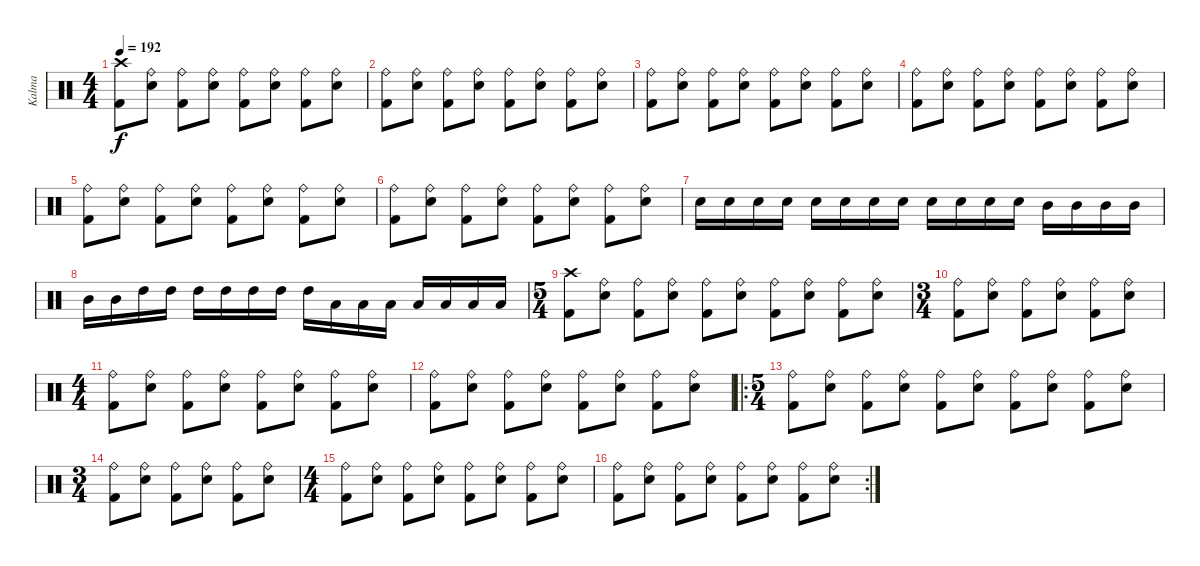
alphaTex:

\track ("Kalma" "Kalma") {instrument percussion}
\staff {score}
\articulation defaults
\ts (4 4)
\tempo 192
\clef neutral
\ks c
("Crash high (hit)" "Kick (hit) 2").8{dy f} ("Ride (bell)" "Snare (hit) 2").8 ("Ride (bell)" "Kick (hit) 2").8 ("Ride (bell)" "Snare (hit) 2").8 ("Ride (bell)" "Kick (hit) 2").8 ("Ride (bell)" "Snare (hit) 2").8 ("Ride (bell)" "Kick (hit) 2").8 ("Ride (bell)" "Snare (hit) 2").8 |
("Ride (bell)" "Kick (hit) 2").8 ("Ride (bell)" "Snare (hit) 2").8 ("Ride (bell)" "Kick (hit) 2").8 ("Ride (bell)" "Snare (hit) 2").8 ("Ride (bell)" "Kick (hit) 2").8 ("Ride (bell)" "Snare (hit) 2").8 ("Ride (bell)" "Kick (hit) 2").8 ("Ride (bell)" "Snare (hit) 2").8 |
("Ride (bell)" "Kick (hit) 2").8 ("Ride (bell)" "Snare (hit) 2").8 ("Ride (bell)" "Kick (hit) 2").8 ("Ride (bell)" "Snare (hit) 2").8 ("Ride (bell)" "Kick (hit) 2").8 ("Ride (bell)" "Snare (hit) 2").8 ("Ride (bell)" "Kick (hit) 2").8 ("Ride (bell)" "Snare (hit) 2").8 |
("Ride (bell)" "Kick (hit) 2").8 ("Ride (bell)" "Snare (hit) 2").8 ("Ride (bell)" "Kick (hit) 2").8 ("Ride (bell)" "Snare (hit) 2").8 ("Ride (bell)" "Kick (hit) 2").8 ("Ride (bell)" "Snare (hit) 2").8 ("Ride (bell)" "Kick (hit) 2").8 ("Ride (bell)" "Snare (hit) 2").8 |
("Ride (bell)" "Kick (hit) 2").8 ("Ride (bell)" "Snare (hit) 2").8 ("Ride (bell)" "Kick (hit) 2").8 ("Ride (bell)" "Snare (hit) 2").8 ("Ride (bell)" "Kick (hit) 2").8 ("Ride (bell)" "Snare (hit) 2").8 ("Ride (bell)" "Kick (hit) 2").8 ("Ride (bell)" "Snare (hit) 2").8 |
("Ride (bell)" "Kick (hit) 2").8 ("Ride (bell)" "Snare (hit) 2").8 ("Ride (bell)" "Kick (hit) 2").8 ("Ride (bell)" "Snare (hit) 2").8 ("Ride (bell)" "Kick (hit) 2").8 ("Ride (bell)" "Snare (hit) 2").8 ("Ride (bell)" "Kick (hit) 2").8 ("Ride (bell)" "Snare (hit) 2").8 |
"Snare (hit) 2".16 "Snare (hit) 2".16 "Snare (hit) 2".16 "Snare (hit) 2".16 "Snare (hit) 2".16 "Snare (hit) 2".16 "Snare (hit) 2".16 "Snare (hit) 2".16 "Snare (hit) 2".16 "Snare (hit) 2".16 "Snare (hit) 2".16 "Snare (hit) 2".16 "Mid Tom (hit)".16 "Mid Tom (hit)".16 "Mid Tom (hit)".16 "Mid Tom (hit)".16 |
"Mid Tom (hit)".16 "Mid Tom (hit)".16 "High Tom (hit)".16 "High Tom (hit)".16 "High Tom (hit)".16 "High Tom (hit)".16 "High Tom (hit)".16 "High Tom (hit)".16 "High Tom (hit)".16 "Low Floor Tom (hit)".16 "Low Floor Tom (hit)".16 "Low Floor Tom (hit)".16 "Low Floor Tom (hit)".16 "Low Floor Tom (hit)".16 "Low Floor Tom (hit)".16 "Low Floor Tom (hit)".16 |
\ts (5 4)
("Crash high (hit)" "Kick (hit) 2").8 ("Ride (bell)" "Snare (hit) 2").8 ("Ride (bell)" "Kick (hit) 2").8 ("Ride (bell)" "Snare (hit) 2").8 ("Ride (bell)" "Kick (hit) 2").8 ("Ride (bell)" "Snare (hit) 2").8 ("Ride (bell)" "Kick (hit) 2").8 ("Ride (bell)" "Snare (hit) 2").8 ("Ride (bell)" "Kick (hit) 2").8 ("Ride (bell)" "Snare (hit) 2").8 |
\ts (3 4)
("Ride (bell)" "Kick (hit) 2").8 ("Ride (bell)" "Snare (hit) 2").8 ("Ride (bell)" "Kick (hit) 2").8 ("Ride (bell)" "Snare (hit) 2").8 ("Ride (bell)" "Kick (hit) 2").8 ("Ride (bell)" "Snare (hit) 2").8 |
\ts (4 4)
("Ride (bell)" "Kick (hit) 2").8 ("Ride (bell)" "Snare (hit) 2").8 ("Ride (bell)" "Kick (hit) 2").8 ("Ride (bell)" "Snare (hit) 2").8 ("Ride (bell)" "Kick (hit) 2").8 ("Ride (bell)" "Snare (hit) 2").8 ("Ride (bell)" "Kick (hit) 2").8 ("Ride (bell)" "Snare (hit) 2").8 |
("Ride (bell)" "Kick (hit) 2").8 ("Ride (bell)" "Snare (hit) 2").8 ("Ride (bell)" "Kick (hit) 2").8 ("Ride (bell)" "Snare (hit) 2").8 ("Ride (bell)" "Kick (hit) 2").8 ("Ride (bell)" "Snare (hit) 2").8 ("Ride (bell)" "Kick (hit) 2").8 ("Ride (bell)" "Snare (hit) 2").8 |
\ro
\ts (5 4)
("Ride (bell)" "Kick (hit) 2").8 ("Ride (bell)" "Snare (hit) 2").8 ("Ride (bell)" "Kick (hit) 2").8 ("Ride (bell)" "Snare (hit) 2").8 ("Ride (bell)" "Kick (hit) 2").8 ("Ride (bell)" "Snare (hit) 2").8 ("Ride (bell)" "Kick (hit) 2").8 ("Ride (bell)" "Snare (hit) 2").8 ("Ride (bell)" "Kick (hit) 2").8 ("Ride (bell)" "Snare (hit) 2").8 |
\ts (3 4)
("Ride (bell)" "Kick (hit) 2").8 ("Ride (bell)" "Snare (hit) 2").8 ("Ride (bell)" "Kick (hit) 2").8 ("Ride (bell)" "Snare (hit) 2").8 ("Ride (bell)" "Kick (hit) 2").8 ("Ride (bell)" "Snare (hit) 2").8 |
\ts (4 4)
("Ride (bell)" "Kick (hit) 2").8 ("Ride (bell)" "Snare (hit) 2").8 ("Ride (bell)" "Kick (hit) 2").8 ("Ride (bell)" "Snare (hit) 2").8 ("Ride (bell)" "Kick (hit) 2").8 ("Ride (bell)" "Snare (hit) 2").8 ("Ride (bell)" "Kick (hit) 2").8 ("Ride (bell)" "Snare (hit) 2").8 |
\rc 2
("Ride (bell)" "Kick (hit) 2").8 ("Ride (bell)" "Snare (hit) 2").8 ("Ride (bell)" "Kick (hit) 2").8 ("Ride (bell)" "Snare (hit) 2").8 ("Ride (bell)" "Kick (hit) 2").8 ("Ride (bell)" "Snare (hit) 2").8 ("Ride (bell)" "Kick (hit) 2").8 ("Ride (bell)" "Snare (hit) 2").8
